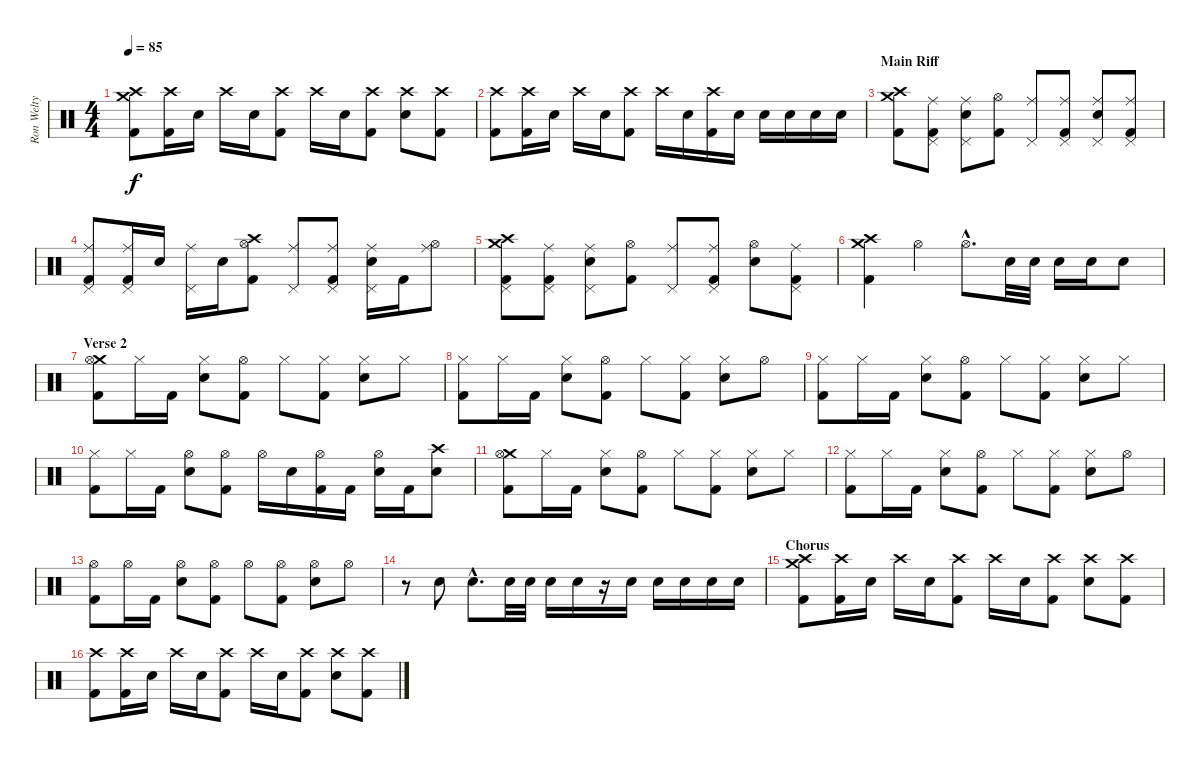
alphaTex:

\track ("Ron Welty - Drums" "Ron Welty ") {instrument percussion}
\staff {score}
\articulation defaults
\ts (4 4)
\tempo 85
\clef neutral
\ks c
("Crash high (hit)" "Crash medium (hit)" "Kick (hit) 2").8{dy f} ("Crash high (hit)" "Kick (hit) 2").16 "Snare (hit) 2".16 "Crash high (hit)".16 "Snare (hit) 2".16 ("Crash high (hit)" "Kick (hit) 2").8 "Crash high (hit)".16 "Snare (hit) 2".16 ("Crash high (hit)" "Kick (hit) 2").8 ("Crash high (hit)" "Snare (hit) 2").8 ("Crash high (hit)" "Kick (hit) 2").8 |
("Crash high (hit)" "Kick (hit) 2").8 ("Crash high (hit)" "Kick (hit) 2").16 "Snare (hit) 2".16 "Crash high (hit)".16 "Snare (hit) 2".16 ("Crash high (hit)" "Kick (hit) 2").8 "Crash high (hit)".16 "Snare (hit) 2".16 ("Crash high (hit)" "Kick (hit) 2").16 "Snare (hit) 2".16 "Snare (hit) 2".16 "Snare (hit) 2".16 "Snare (hit) 2".16 "Snare (hit) 2".16 |
\section ("" "Main Riff")
("Crash medium (hit)" "Crash high (hit)" "Kick (hit) 2").8 ("Ride (middle)" "Pedal Hi-Hat (hit)" "Kick (hit) 2").8 ("Ride (middle)" "Pedal Hi-Hat (hit)" "Snare (hit) 2").8 ("Hi-Hat (open)" "Kick (hit) 2").8 ("Ride (middle)" "Pedal Hi-Hat (hit)").8 ("Ride (middle)" "Pedal Hi-Hat (hit)" "Kick (hit) 2").8 ("Ride (middle)" "Pedal Hi-Hat (hit)" "Snare (hit) 2").8 ("Ride (middle)" "Pedal Hi-Hat (hit)" "Kick (hit) 2").8 |
("Ride (middle)" "Pedal Hi-Hat (hit)" "Kick (hit) 2").8 ("Ride (middle)" "Pedal Hi-Hat (hit)" "Kick (hit) 2").16 "Snare (hit) 2".16 ("Ride (middle)" "Pedal Hi-Hat (hit)").16 "Snare (hit) 2".16 ("Crash high (hit)" "Hi-Hat (open)" "Kick (hit) 2").8 ("Ride (middle)" "Pedal Hi-Hat (hit)").8 ("Ride (middle)" "Pedal Hi-Hat (hit)" "Kick (hit) 2").8 ("Ride (middle)" "Pedal Hi-Hat (hit)" "Snare (hit) 2").16 "Kick (hit) 2".16 ("Ride (middle)" "Hi-Hat (open)").8 |
("Crash medium (hit)" "Crash high (hit)" "Pedal Hi-Hat (hit)" "Kick (hit) 2").8 ("Ride (middle)" "Pedal Hi-Hat (hit)" "Kick (hit) 2").8 ("Ride (middle)" "Pedal Hi-Hat (hit)" "Snare (hit) 2").8 ("Hi-Hat (open)" "Kick (hit) 2").8 ("Ride (middle)" "Pedal Hi-Hat (hit)").8 ("Ride (middle)" "Pedal Hi-Hat (hit)" "Kick (hit) 2").8 ("Hi-Hat (open)" "Snare (hit) 2").8 ("Ride (middle)" "Pedal Hi-Hat (hit)" "Kick (hit) 2").8 |
("Crash high (hit)" "Crash medium (hit)" "Kick (hit) 2").4 "Hi-Hat (open)".4 "Hi-Hat (open)"{hac}.8{d} "Snare (hit) 2".32 "Snare (hit) 2".32 "Snare (hit) 2".16 "Snare (hit) 2".16 "Snare (hit) 2".8 |
\section ("" "Verse 2")
("Crash medium (hit)" "Hi-Hat (open)" "Kick (hit) 2").8 "Hi-Hat (closed)".16 "Kick (hit) 2".16 ("Hi-Hat (closed)" "Snare (hit) 2").8 ("Hi-Hat (open)" "Kick (hit) 2").8 "Hi-Hat (closed)".8 ("Hi-Hat (closed)" "Kick (hit) 2").8 ("Hi-Hat (closed)" "Snare (hit) 2").8 "Hi-Hat (closed)".8 |
("Hi-Hat (closed)" "Kick (hit) 2").8 "Hi-Hat (closed)".16 "Kick (hit) 2".16 ("Hi-Hat (closed)" "Snare (hit) 2").8 ("Hi-Hat (open)" "Kick (hit) 2").8 "Hi-Hat (closed)".8 ("Hi-Hat (closed)" "Kick (hit) 2").8 ("Hi-Hat (closed)" "Snare (hit) 2").8 "Hi-Hat (open)".8 |
("Hi-Hat (closed)" "Kick (hit) 2").8 "Hi-Hat (closed)".16 "Kick (hit) 2".16 ("Hi-Hat (closed)" "Snare (hit) 2").8 ("Hi-Hat (open)" "Kick (hit) 2").8 "Hi-Hat (closed)".8 ("Hi-Hat (closed)" "Kick (hit) 2").8 ("Hi-Hat (closed)" "Snare (hit) 2").8 "Hi-Hat (closed)".8 |
("Hi-Hat (closed)" "Kick (hit) 2").8 "Hi-Hat (closed)".16 "Kick (hit) 2".16 ("Hi-Hat (open)" "Snare (hit) 2").8 ("Hi-Hat (open)" "Kick (hit) 2").8 "Hi-Hat (open)".16 "Snare (hit) 2".16 ("Hi-Hat (open)" "Kick (hit) 2").16 "Kick (hit) 2".16 ("Hi-Hat (open)" "Snare (hit) 2").16 "Kick (hit) 2".16 ("Crash high (hit)" "Snare (hit) 2").8 |
("Crash medium (hit)" "Hi-Hat (open)" "Kick (hit) 2").8 "Hi-Hat (closed)".16 "Kick (hit) 2".16 ("Hi-Hat (closed)" "Snare (hit) 2").8 ("Hi-Hat (open)" "Kick (hit) 2").8 "Hi-Hat (closed)".8 ("Hi-Hat (closed)" "Kick (hit) 2").8 ("Hi-Hat (closed)" "Snare (hit) 2").8 "Hi-Hat (closed)".8 |
("Hi-Hat (closed)" "Kick (hit) 2").8 "Hi-Hat (closed)".16 "Kick (hit) 2".16 ("Hi-Hat (closed)" "Snare (hit) 2").8 ("Hi-Hat (open)" "Kick (hit) 2").8 "Hi-Hat (closed)".8 ("Hi-Hat (closed)" "Kick (hit) 2").8 ("Hi-Hat (closed)" "Snare (hit) 2").8 "Hi-Hat (open)".8 |
("Hi-Hat (open)" "Kick (hit) 2").8 "Hi-Hat (open)".16 "Kick (hit) 2".16 ("Hi-Hat (open)" "Snare (hit) 2").8 ("Hi-Hat (open)" "Kick (hit) 2").8 "Hi-Hat (open)".8 ("Hi-Hat (open)" "Kick (hit) 2").8 ("Hi-Hat (open)" "Snare (hit) 2").8 "Hi-Hat (open)".8 |
r.8 "Snare (hit) 2".8 "Snare (hit) 2"{hac}.8{d} "Snare (hit) 2".32 "Snare (hit) 2".32 "Snare (hit) 2".16 "Snare (hit) 2".16 r.16 "Snare (hit) 2".16 "Snare (hit) 2".16 "Snare (hit) 2".16 "Snare (hit) 2".16 "Snare (hit) 2".16 |
\section ("" "Chorus")
("Crash high (hit)" "Crash medium (hit)" "Kick (hit) 2").8 ("Crash high (hit)" "Kick (hit) 2").16 "Snare (hit) 2".16 "Crash high (hit)".16 "Snare (hit) 2".16 ("Crash high (hit)" "Kick (hit) 2").8 "Crash high (hit)".16 "Snare (hit) 2".16 ("Crash high (hit)" "Kick (hit) 2").8 ("Crash high (hit)" "Snare (hit) 2").8 ("Crash high (hit)" "Kick (hit) 2").8 |
("Crash high (hit)" "Kick (hit) 2").8 ("Crash high (hit)" "Kick (hit) 2").16 "Snare (hit) 2".16 "Crash high (hit)".16 "Snare (hit) 2".16 ("Crash high (hit)" "Kick (hit) 2").8 "Crash high (hit)".16 "Snare (hit) 2".16 ("Crash high (hit)" "Kick (hit) 2").8 ("Crash high (hit)" "Snare (hit) 2").8 ("Crash high (hit)" "Kick (hit) 2").8
